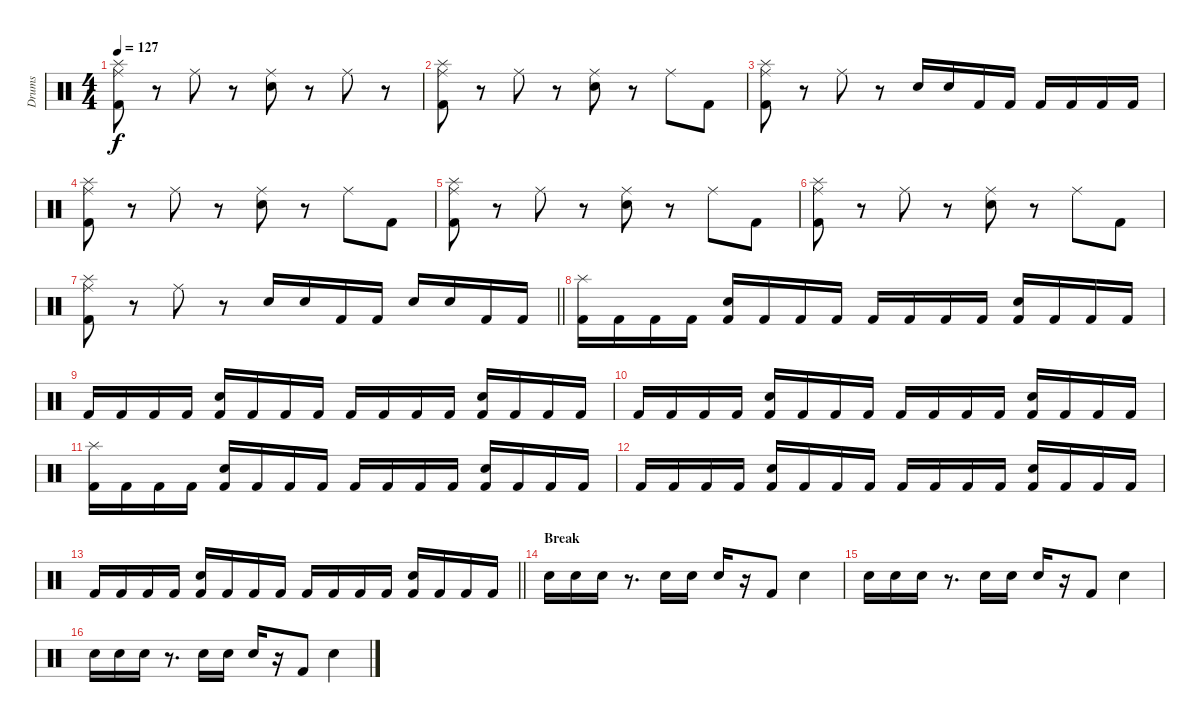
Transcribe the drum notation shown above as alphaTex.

\track ("Drums" "Drums") {instrument percussion}
\staff {score}
\articulation defaults
\ts (4 4)
\tempo 127
\clef neutral
\ks c
("Ride (middle)" "Kick (hit) 2" "Splash (hit)").8{dy f} r.8 "Ride (middle)".8 r.8 ("Ride (middle)" "Electric Snare (hit)").8 r.8 "Ride (middle)".8 r.8 |
("Ride (middle)" "Kick (hit) 2" "Splash (hit)").8 r.8 "Ride (middle)".8 r.8 ("Ride (middle)" "Electric Snare (hit)").8 r.8 "Ride (middle)".8 "Kick (hit) 2".8 |
("Ride (middle)" "Kick (hit) 2" "Splash (hit)").8 r.8 "Ride (middle)".8 r.8 "Electric Snare (hit)".16 "Electric Snare (hit)".16 "Kick (hit) 2".16 "Kick (hit) 2".16 "Kick (hit) 2".16 "Kick (hit) 2".16 "Kick (hit) 2".16 "Kick (hit) 2".16 |
("Ride (middle)" "Kick (hit) 2" "Splash (hit)").8 r.8 "Ride (middle)".8 r.8 ("Ride (middle)" "Electric Snare (hit)").8 r.8 "Ride (middle)".8 "Kick (hit) 2".8 |
("Ride (middle)" "Kick (hit) 2" "Splash (hit)").8 r.8 "Ride (middle)".8 r.8 ("Ride (middle)" "Electric Snare (hit)").8 r.8 "Ride (middle)".8 "Kick (hit) 2".8 |
("Ride (middle)" "Kick (hit) 2" "Splash (hit)").8 r.8 "Ride (middle)".8 r.8 ("Ride (middle)" "Electric Snare (hit)").8 r.8 "Ride (middle)".8 "Kick (hit) 2".8 |
\barLineRight lightlight
("Ride (middle)" "Kick (hit) 2" "Splash (hit)").8 r.8 "Ride (middle)".8 r.8 "Electric Snare (hit)".16 "Electric Snare (hit)".16 "Kick (hit) 2".16 "Kick (hit) 2".16 "Electric Snare (hit)".16 "Electric Snare (hit)".16 "Kick (hit) 2".16 "Kick (hit) 2".16 |
\section ("" "")
("Kick (hit) 2" "Splash (hit)").16 "Kick (hit) 2".16 "Kick (hit) 2".16 "Kick (hit) 2".16 ("Kick (hit) 2" "Electric Snare (hit)").16 "Kick (hit) 2".16 "Kick (hit) 2".16 "Kick (hit) 2".16 "Kick (hit) 2".16 "Kick (hit) 2".16 "Kick (hit) 2".16 "Kick (hit) 2".16 ("Kick (hit) 2" "Electric Snare (hit)").16 "Kick (hit) 2".16 "Kick (hit) 2".16 "Kick (hit) 2".16 |
"Kick (hit) 2".16 "Kick (hit) 2".16 "Kick (hit) 2".16 "Kick (hit) 2".16 ("Kick (hit) 2" "Electric Snare (hit)").16 "Kick (hit) 2".16 "Kick (hit) 2".16 "Kick (hit) 2".16 "Kick (hit) 2".16 "Kick (hit) 2".16 "Kick (hit) 2".16 "Kick (hit) 2".16 ("Kick (hit) 2" "Electric Snare (hit)").16 "Kick (hit) 2".16 "Kick (hit) 2".16 "Kick (hit) 2".16 |
"Kick (hit) 2".16 "Kick (hit) 2".16 "Kick (hit) 2".16 "Kick (hit) 2".16 ("Kick (hit) 2" "Electric Snare (hit)").16 "Kick (hit) 2".16 "Kick (hit) 2".16 "Kick (hit) 2".16 "Kick (hit) 2".16 "Kick (hit) 2".16 "Kick (hit) 2".16 "Kick (hit) 2".16 ("Kick (hit) 2" "Electric Snare (hit)").16 "Kick (hit) 2".16 "Kick (hit) 2".16 "Kick (hit) 2".16 |
("Kick (hit) 2" "Splash (hit)").16 "Kick (hit) 2".16 "Kick (hit) 2".16 "Kick (hit) 2".16 ("Kick (hit) 2" "Electric Snare (hit)").16 "Kick (hit) 2".16 "Kick (hit) 2".16 "Kick (hit) 2".16 "Kick (hit) 2".16 "Kick (hit) 2".16 "Kick (hit) 2".16 "Kick (hit) 2".16 ("Kick (hit) 2" "Electric Snare (hit)").16 "Kick (hit) 2".16 "Kick (hit) 2".16 "Kick (hit) 2".16 |
"Kick (hit) 2".16 "Kick (hit) 2".16 "Kick (hit) 2".16 "Kick (hit) 2".16 ("Kick (hit) 2" "Electric Snare (hit)").16 "Kick (hit) 2".16 "Kick (hit) 2".16 "Kick (hit) 2".16 "Kick (hit) 2".16 "Kick (hit) 2".16 "Kick (hit) 2".16 "Kick (hit) 2".16 ("Kick (hit) 2" "Electric Snare (hit)").16 "Kick (hit) 2".16 "Kick (hit) 2".16 "Kick (hit) 2".16 |
\barLineRight lightlight "Kick (hit) 2".16 "Kick (hit) 2".16 "Kick (hit) 2".16 "Kick (hit) 2".16
("Kick (hit) 2" "Electric Snare (hit)").16 "Kick (hit) 2".16 "Kick (hit) 2".16 "Kick (hit) 2".16 "Kick (hit) 2".16 "Kick (hit) 2".16 "Kick (hit) 2".16 "Kick (hit) 2".16 ("Kick (hit) 2" "Electric Snare (hit)").16 "Kick (hit) 2".16 "Kick (hit) 2".16 "Kick (hit) 2".16 |
\section ("" "Break")
"Electric Snare (hit)".16 "Electric Snare (hit)".16 "Electric Snare (hit)".16 r.8{d} "Electric Snare (hit)".16 "Electric Snare (hit)".16 "Electric Snare (hit)".16 r.16 "Kick (hit) 2".8 "Electric Snare (hit)".4 |
"Electric Snare (hit)".16 "Electric Snare (hit)".16 "Electric Snare (hit)".16 r.8{d} "Electric Snare (hit)".16 "Electric Snare (hit)".16 "Electric Snare (hit)".16 r.16 "Kick (hit) 2".8 "Electric Snare (hit)".4 |
"Electric Snare (hit)".16 "Electric Snare (hit)".16 "Electric Snare (hit)".16 r.8{d} "Electric Snare (hit)".16 "Electric Snare (hit)".16 "Electric Snare (hit)".16 r.16 "Kick (hit) 2".8 "Electric Snare (hit)".4
